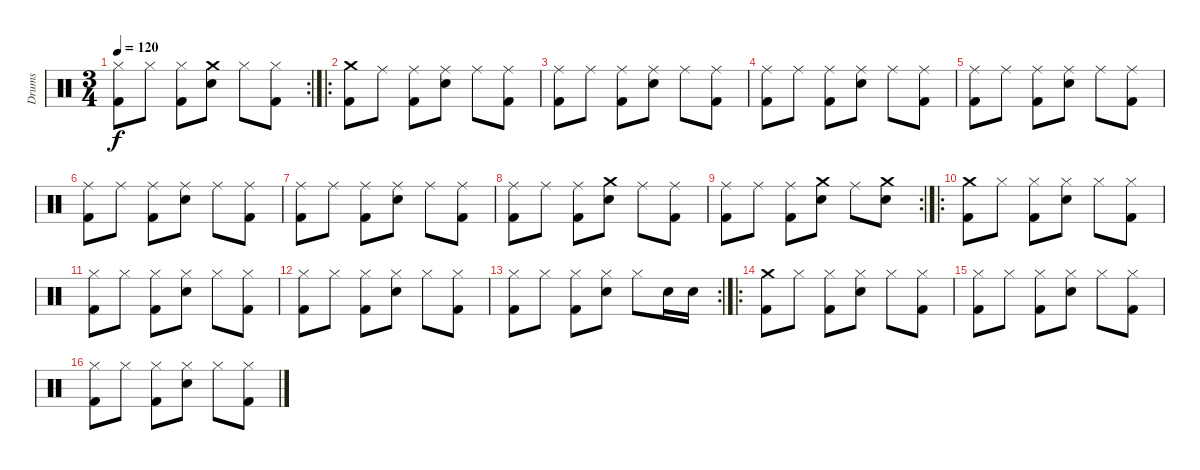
\track ("Drums" "Drums") {instrument percussion}
\staff {score}
\articulation defaults
\rc 2
\ts (3 4)
\tempo 120
\clef neutral
\ks c
("Hi-Hat (closed)" "Kick (hit) 2").8{dy f} "Hi-Hat (closed)".8 ("Hi-Hat (closed)" "Kick (hit) 2").8 ("Crash medium (hit)" "Snare (hit) 2").8 "Hi-Hat (closed)".8 ("Hi-Hat (closed)" "Kick (hit) 2").8 |
\ro
("Crash medium (hit)" "Kick (hit) 2").8 "Ride (middle)".8 ("Ride (middle)" "Kick (hit) 2").8 ("Ride (middle)" "Snare (hit) 2").8 "Ride (middle)".8 ("Ride (middle)" "Kick (hit) 2").8 |
("Ride (middle)" "Kick (hit) 2").8 "Ride (middle)".8 ("Ride (middle)" "Kick (hit) 2").8 ("Ride (middle)" "Snare (hit) 2").8 "Ride (middle)".8 ("Ride (middle)" "Kick (hit) 2").8 |
("Ride (middle)" "Kick (hit) 2").8 "Ride (middle)".8 ("Ride (middle)" "Kick (hit) 2").8 ("Ride (middle)" "Snare (hit) 2").8 "Ride (middle)".8 ("Ride (middle)" "Kick (hit) 2").8 |
("Ride (middle)" "Kick (hit) 2").8 "Ride (middle)".8 ("Ride (middle)" "Kick (hit) 2").8 ("Ride (middle)" "Snare (hit) 2").8 "Ride (middle)".8 ("Ride (middle)" "Kick (hit) 2").8 |
("Ride (middle)" "Kick (hit) 2").8 "Ride (middle)".8 ("Ride (middle)" "Kick (hit) 2").8 ("Ride (middle)" "Snare (hit) 2").8 "Ride (middle)".8 ("Ride (middle)" "Kick (hit) 2").8 |
("Ride (middle)" "Kick (hit) 2").8 "Ride (middle)".8 ("Ride (middle)" "Kick (hit) 2").8 ("Ride (middle)" "Snare (hit) 2").8 "Ride (middle)".8 ("Ride (middle)" "Kick (hit) 2").8 |
("Ride (middle)" "Kick (hit) 2").8 "Ride (middle)".8 ("Ride (middle)" "Kick (hit) 2").8 ("Crash medium (hit)" "Snare (hit) 2").8 "Ride (middle)".8 ("Ride (middle)" "Kick (hit) 2").8 |
\rc 2
("Ride (middle)" "Kick (hit) 2").8 "Ride (middle)".8 ("Ride (middle)" "Kick (hit) 2").8 ("Crash medium (hit)" "Snare (hit) 2").8 "Ride (middle)".8 ("Crash medium (hit)" "Snare (hit) 2").8 |
\ro
("Crash medium (hit)" "Kick (hit) 2").8 "Hi-Hat (closed)".8 ("Hi-Hat (closed)" "Kick (hit) 2").8 ("Hi-Hat (closed)" "Snare (hit) 2").8 "Hi-Hat (closed)".8 ("Hi-Hat (closed)" "Kick (hit) 2").8 |
("Hi-Hat (closed)" "Kick (hit) 2").8 "Hi-Hat (closed)".8 ("Hi-Hat (closed)" "Kick (hit) 2").8 ("Hi-Hat (closed)" "Snare (hit) 2").8 "Hi-Hat (closed)".8 ("Hi-Hat (closed)" "Kick (hit) 2").8 |
("Hi-Hat (closed)" "Kick (hit) 2").8 "Hi-Hat (closed)".8 ("Hi-Hat (closed)" "Kick (hit) 2").8 ("Hi-Hat (closed)" "Snare (hit) 2").8 "Hi-Hat (closed)".8 ("Hi-Hat (closed)" "Kick (hit) 2").8 |
\rc 2
("Hi-Hat (closed)" "Kick (hit) 2").8 "Hi-Hat (closed)".8 ("Hi-Hat (closed)" "Kick (hit) 2").8 ("Hi-Hat (closed)" "Snare (hit) 2").8 "Hi-Hat (closed)".8 "Snare (hit) 2".16 "Snare (hit) 2".16 |
\ro
("Crash medium (hit)" "Kick (hit) 2").8 "Hi-Hat (closed)".8 ("Hi-Hat (closed)" "Kick (hit) 2").8 ("Hi-Hat (closed)" "Snare (hit) 2").8 "Hi-Hat (closed)".8 ("Hi-Hat (closed)" "Kick (hit) 2").8 |
("Hi-Hat (closed)" "Kick (hit) 2").8 "Hi-Hat (closed)".8 ("Hi-Hat (closed)" "Kick (hit) 2").8 ("Hi-Hat (closed)" "Snare (hit) 2").8 "Hi-Hat (closed)".8 ("Hi-Hat (closed)" "Kick (hit) 2").8 |
("Hi-Hat (closed)" "Kick (hit) 2").8 "Hi-Hat (closed)".8 ("Hi-Hat (closed)" "Kick (hit) 2").8 ("Hi-Hat (closed)" "Snare (hit) 2").8 "Hi-Hat (closed)".8 ("Hi-Hat (closed)" "Kick (hit) 2").8
